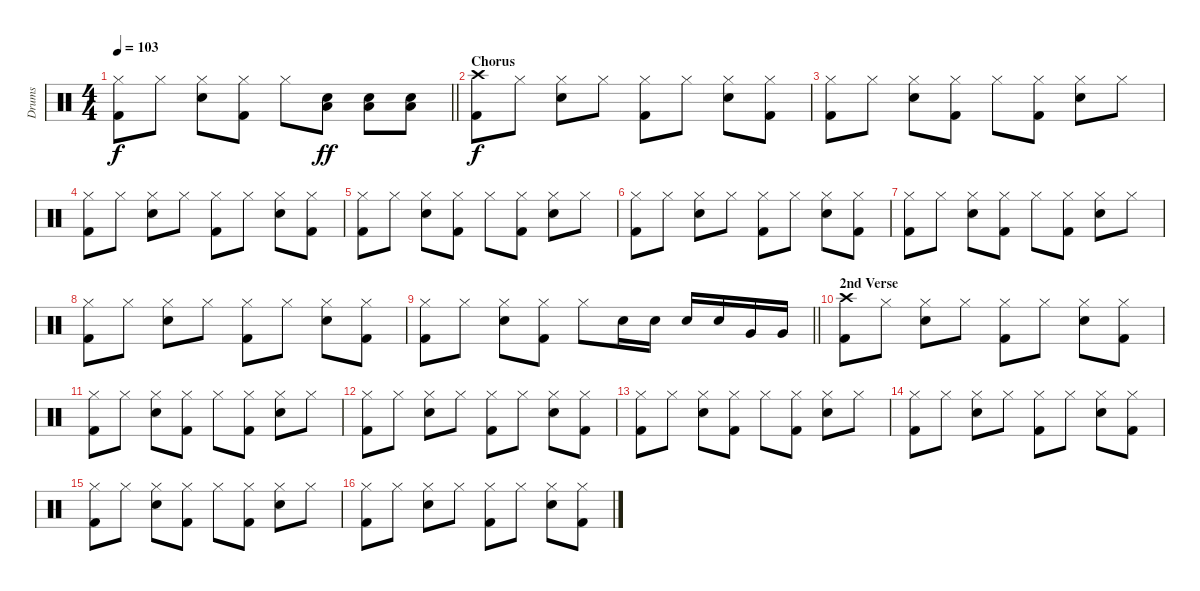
\track ("Drums" "Drums") {instrument percussion}
\staff {score}
\articulation defaults
\ts (4 4)
\tempo 103
\clef neutral
\barLineRight lightlight
\ks c
("Hi-Hat (closed)" "Kick (hit) 2").8{dy f} "Hi-Hat (closed)".8 ("Hi-Hat (closed)" "Snare (hit) 2").8 ("Hi-Hat (closed)" "Kick (hit) 2").8 "Hi-Hat (closed)".8 ("Low Floor Tom (hit)" "Snare (hit) 2").8{dy ff} ("Low Floor Tom (hit)" "Snare (hit) 2").8 ("Low Floor Tom (hit)" "Snare (hit) 2").8 |
\section ("" "Chorus")
("Crash high (hit)" "Kick (hit) 2").8{dy f} "Hi-Hat (closed)".8 ("Hi-Hat (closed)" "Snare (hit) 2").8 "Hi-Hat (closed)".8 ("Hi-Hat (closed)" "Kick (hit) 2").8 "Hi-Hat (closed)".8 ("Hi-Hat (closed)" "Snare (hit) 2").8 ("Hi-Hat (closed)" "Kick (hit) 2").8 |
("Hi-Hat (closed)" "Kick (hit) 2").8 "Hi-Hat (closed)".8 ("Hi-Hat (closed)" "Snare (hit) 2").8 ("Hi-Hat (closed)" "Kick (hit) 2").8 "Hi-Hat (closed)".8 ("Hi-Hat (closed)" "Kick (hit) 2").8 ("Hi-Hat (closed)" "Snare (hit) 2").8 "Hi-Hat (closed)".8 |
("Hi-Hat (closed)" "Kick (hit) 2").8 "Hi-Hat (closed)".8 ("Hi-Hat (closed)" "Snare (hit) 2").8 "Hi-Hat (closed)".8 ("Hi-Hat (closed)" "Kick (hit) 2").8 "Hi-Hat (closed)".8 ("Hi-Hat (closed)" "Snare (hit) 2").8 ("Hi-Hat (closed)" "Kick (hit) 2").8 |
("Hi-Hat (closed)" "Kick (hit) 2").8 "Hi-Hat (closed)".8 ("Hi-Hat (closed)" "Snare (hit) 2").8 ("Hi-Hat (closed)" "Kick (hit) 2").8 "Hi-Hat (closed)".8 ("Hi-Hat (closed)" "Kick (hit) 2").8 ("Hi-Hat (closed)" "Snare (hit) 2").8 "Hi-Hat (closed)".8 |
("Hi-Hat (closed)" "Kick (hit) 2").8 "Hi-Hat (closed)".8 ("Hi-Hat (closed)" "Snare (hit) 2").8 "Hi-Hat (closed)".8 ("Hi-Hat (closed)" "Kick (hit) 2").8 "Hi-Hat (closed)".8 ("Hi-Hat (closed)" "Snare (hit) 2").8 ("Hi-Hat (closed)" "Kick (hit) 2").8 |
("Hi-Hat (closed)" "Kick (hit) 2").8 "Hi-Hat (closed)".8 ("Hi-Hat (closed)" "Snare (hit) 2").8 ("Hi-Hat (closed)" "Kick (hit) 2").8 "Hi-Hat (closed)".8 ("Hi-Hat (closed)" "Kick (hit) 2").8 ("Hi-Hat (closed)" "Snare (hit) 2").8 "Hi-Hat (closed)".8 |
("Hi-Hat (closed)" "Kick (hit) 2").8 "Hi-Hat (closed)".8 ("Hi-Hat (closed)" "Snare (hit) 2").8 "Hi-Hat (closed)".8 ("Hi-Hat (closed)" "Kick (hit) 2").8 "Hi-Hat (closed)".8 ("Hi-Hat (closed)" "Snare (hit) 2").8 ("Hi-Hat (closed)" "Kick (hit) 2").8 |
\barLineRight lightlight
("Hi-Hat (closed)" "Kick (hit) 2").8 "Hi-Hat (closed)".8 ("Hi-Hat (closed)" "Snare (hit) 2").8 ("Hi-Hat (closed)" "Kick (hit) 2").8 "Hi-Hat (closed)".8 "Snare (hit) 2".16 "Snare (hit) 2".16 "Snare (hit) 2".16 "Snare (hit) 2".16 "Very Low Tom (hit)".16 "Very Low Tom (hit)".16 |
\section ("" "2nd Verse")
("Crash high (hit)" "Kick (hit) 2").8 "Hi-Hat (closed)".8 ("Hi-Hat (closed)" "Snare (hit) 2").8 "Hi-Hat (closed)".8 ("Hi-Hat (closed)" "Kick (hit) 2").8 "Hi-Hat (closed)".8 ("Hi-Hat (closed)" "Snare (hit) 2").8 ("Hi-Hat (closed)" "Kick (hit) 2").8 |
("Hi-Hat (closed)" "Kick (hit) 2").8 "Hi-Hat (closed)".8 ("Hi-Hat (closed)" "Snare (hit) 2").8 ("Hi-Hat (closed)" "Kick (hit) 2").8 "Hi-Hat (closed)".8 ("Hi-Hat (closed)" "Kick (hit) 2").8 ("Hi-Hat (closed)" "Snare (hit) 2").8 "Hi-Hat (closed)".8 |
("Hi-Hat (closed)" "Kick (hit) 2").8 "Hi-Hat (closed)".8 ("Hi-Hat (closed)" "Snare (hit) 2").8 "Hi-Hat (closed)".8 ("Hi-Hat (closed)" "Kick (hit) 2").8 "Hi-Hat (closed)".8 ("Hi-Hat (closed)" "Snare (hit) 2").8 ("Hi-Hat (closed)" "Kick (hit) 2").8 |
("Hi-Hat (closed)" "Kick (hit) 2").8 "Hi-Hat (closed)".8 ("Hi-Hat (closed)" "Snare (hit) 2").8 ("Hi-Hat (closed)" "Kick (hit) 2").8 "Hi-Hat (closed)".8 ("Hi-Hat (closed)" "Kick (hit) 2").8 ("Hi-Hat (closed)" "Snare (hit) 2").8 "Hi-Hat (closed)".8 |
("Hi-Hat (closed)" "Kick (hit) 2").8 "Hi-Hat (closed)".8 ("Hi-Hat (closed)" "Snare (hit) 2").8 "Hi-Hat (closed)".8 ("Hi-Hat (closed)" "Kick (hit) 2").8 "Hi-Hat (closed)".8 ("Hi-Hat (closed)" "Snare (hit) 2").8 ("Hi-Hat (closed)" "Kick (hit) 2").8 |
("Hi-Hat (closed)" "Kick (hit) 2").8 "Hi-Hat (closed)".8 ("Hi-Hat (closed)" "Snare (hit) 2").8 ("Hi-Hat (closed)" "Kick (hit) 2").8 "Hi-Hat (closed)".8 ("Hi-Hat (closed)" "Kick (hit) 2").8 ("Hi-Hat (closed)" "Snare (hit) 2").8 "Hi-Hat (closed)".8 |
("Hi-Hat (closed)" "Kick (hit) 2").8 "Hi-Hat (closed)".8 ("Hi-Hat (closed)" "Snare (hit) 2").8 "Hi-Hat (closed)".8 ("Hi-Hat (closed)" "Kick (hit) 2").8 "Hi-Hat (closed)".8 ("Hi-Hat (closed)" "Snare (hit) 2").8 ("Hi-Hat (closed)" "Kick (hit) 2").8
